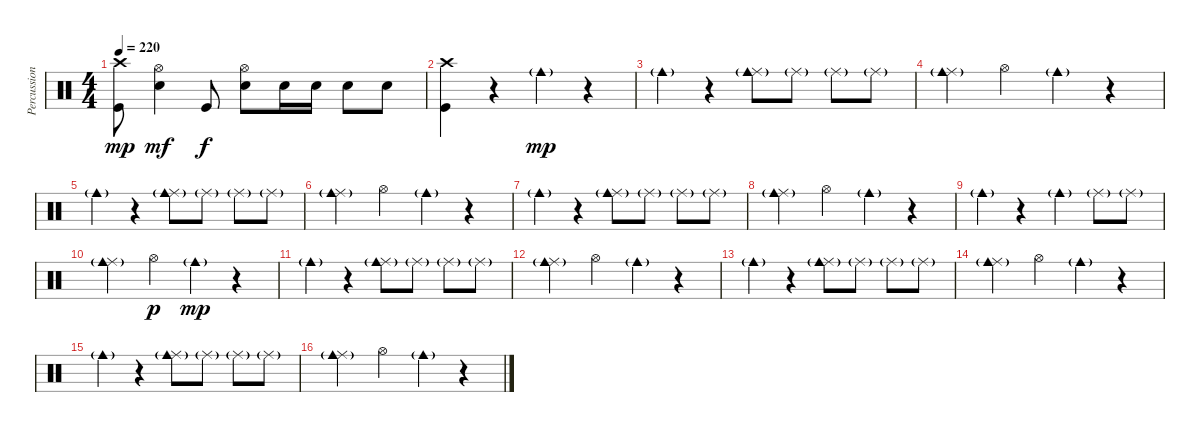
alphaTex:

\track ("Percussion" "Percussion") {instrument percussion}
\staff {score}
\articulation defaults
\ts (4 4)
\tempo 220
\clef neutral
\ks c
("Crash high (hit)" "Kick (hit)").8{dy mp} ("Hi-Hat (open)" "Electric Snare (hit)").4{dy mf} "Kick (hit)".8{dy f} ("Hi-Hat (open)" "Electric Snare (hit)").8 "Electric Snare (hit)".16 "Electric Snare (hit)".16 "Electric Snare (hit)".8 "Electric Snare (hit)".8 |
("Crash high (hit)" "Kick (hit)").4 r.4 "Cowbell medium (hit)"{g}.4{dy mp} r.4 |
"Cowbell medium (hit)"{g}.4 r.4 ("Ride (middle)"{g} "Cowbell medium (hit)"{g}).8 "Ride (middle)"{g}.8 "Ride (middle)"{g}.8 "Ride (middle)"{g}.8 |
("Ride (middle)"{g} "Cowbell medium (hit)"{g}).4 "Hi-Hat (open)".4 "Cowbell medium (hit)"{g}.4 r.4 |
"Cowbell medium (hit)"{g}.4 r.4 ("Ride (middle)"{g} "Cowbell medium (hit)"{g}).8 "Ride (middle)"{g}.8 "Ride (middle)"{g}.8 "Ride (middle)"{g}.8 |
("Ride (middle)"{g} "Cowbell medium (hit)"{g}).4 "Hi-Hat (open)".4 "Cowbell medium (hit)"{g}.4 r.4 |
"Cowbell medium (hit)"{g}.4 r.4 ("Ride (middle)"{g} "Cowbell medium (hit)"{g}).8 "Ride (middle)"{g}.8 "Ride (middle)"{g}.8 "Ride (middle)"{g}.8 |
("Ride (middle)"{g} "Cowbell medium (hit)"{g}).4 "Hi-Hat (open)".4 "Cowbell medium (hit)"{g}.4 r.4 |
"Cowbell medium (hit)"{g}.4 r.4 "Cowbell medium (hit)"{g}.4 "Ride (middle)"{g}.8 "Ride (middle)"{g}.8 |
("Ride (middle)"{g} "Cowbell medium (hit)"{g}).4 "Hi-Hat (open)".4{dy p} "Cowbell medium (hit)"{g}.4{dy mp} r.4 |
"Cowbell medium (hit)"{g}.4 r.4 ("Ride (middle)"{g} "Cowbell medium (hit)"{g}).8 "Ride (middle)"{g}.8 "Ride (middle)"{g}.8 "Ride (middle)"{g}.8 |
("Ride (middle)"{g} "Cowbell medium (hit)"{g}).4 "Hi-Hat (open)".4 "Cowbell medium (hit)"{g}.4 r.4 |
"Cowbell medium (hit)"{g}.4 r.4 ("Ride (middle)"{g} "Cowbell medium (hit)"{g}).8 "Ride (middle)"{g}.8 "Ride (middle)"{g}.8 "Ride (middle)"{g}.8 |
("Ride (middle)"{g} "Cowbell medium (hit)"{g}).4 "Hi-Hat (open)".4 "Cowbell medium (hit)"{g}.4 r.4 |
"Cowbell medium (hit)"{g}.4 r.4 ("Ride (middle)"{g} "Cowbell medium (hit)"{g}).8 "Ride (middle)"{g}.8 "Ride (middle)"{g}.8 "Ride (middle)"{g}.8 |
("Ride (middle)"{g} "Cowbell medium (hit)"{g}).4 "Hi-Hat (open)".4 "Cowbell medium (hit)"{g}.4 r.4
